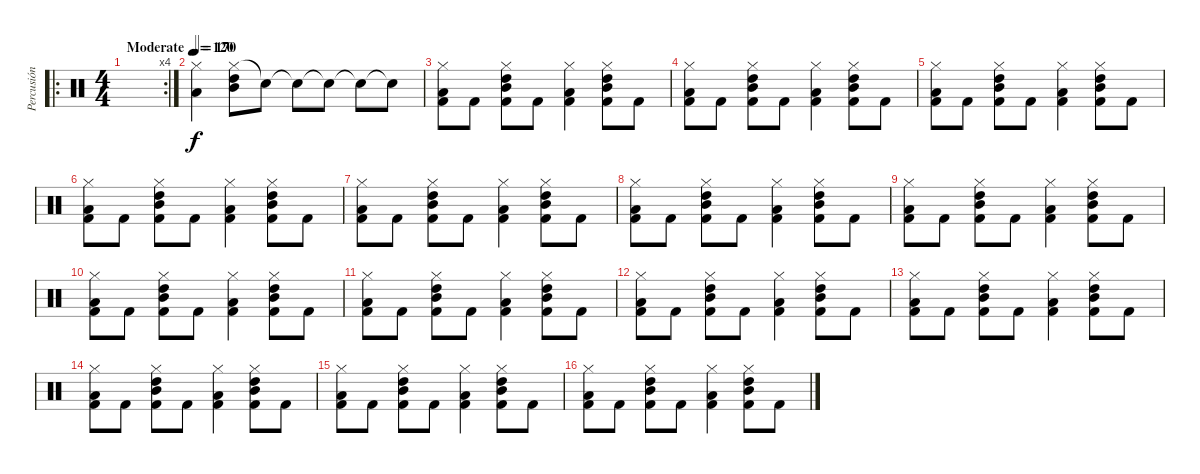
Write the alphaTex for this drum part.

\track ("Percusión" "Percusión") {instrument percussion}
\staff {score}
\articulation defaults
\ro
\rc 4
\ts (4 4)
\tempo (120 "Moderate")
\clef neutral
\ks c
|
\tempo 170
("Hi-Hat (closed)" "Low Floor Tom (hit)").4 ("Hi-Hat (closed)" "Mid Tom (hit)" "High Tom (hit)").8 "Snare (hit)"{t}.8 "Snare (hit)"{t}.8 "Snare (hit)"{t}.8 "Snare (hit)"{t}.8 "Snare (hit)"{t}.8 |
("Kick (hit) 2" "Hi-Hat (closed)" "Low Floor Tom (hit)").8 "Kick (hit) 2".8 ("Kick (hit) 2" "Hi-Hat (closed)" "Mid Tom (hit)" "High Tom (hit)").8 "Kick (hit) 2".8 ("Kick (hit) 2" "Hi-Hat (closed)" "Low Floor Tom (hit)").4 ("Kick (hit) 2" "Hi-Hat (closed)" "Mid Tom (hit)" "High Tom (hit)").8 "Kick (hit) 2".8 |
("Kick (hit) 2" "Hi-Hat (closed)" "Low Floor Tom (hit)").8 "Kick (hit) 2".8 ("Kick (hit) 2" "Hi-Hat (closed)" "Mid Tom (hit)" "High Tom (hit)").8 "Kick (hit) 2".8 ("Kick (hit) 2" "Hi-Hat (closed)" "Low Floor Tom (hit)").4 ("Kick (hit) 2" "Hi-Hat (closed)" "Mid Tom (hit)" "High Tom (hit)").8 "Kick (hit) 2".8 |
("Kick (hit) 2" "Hi-Hat (closed)" "Low Floor Tom (hit)").8 "Kick (hit) 2".8 ("Kick (hit) 2" "Hi-Hat (closed)" "Mid Tom (hit)" "High Tom (hit)").8 "Kick (hit) 2".8 ("Kick (hit) 2" "Hi-Hat (closed)" "Low Floor Tom (hit)").4 ("Kick (hit) 2" "Hi-Hat (closed)" "Mid Tom (hit)" "High Tom (hit)").8 "Kick (hit) 2".8 |
("Kick (hit) 2" "Hi-Hat (closed)" "Low Floor Tom (hit)").8 "Kick (hit) 2".8 ("Kick (hit) 2" "Hi-Hat (closed)" "Mid Tom (hit)" "High Tom (hit)").8 "Kick (hit) 2".8 ("Kick (hit) 2" "Hi-Hat (closed)" "Low Floor Tom (hit)").4 ("Kick (hit) 2" "Hi-Hat (closed)" "Mid Tom (hit)" "High Tom (hit)").8 "Kick (hit) 2".8 |
("Kick (hit) 2" "Hi-Hat (closed)" "Low Floor Tom (hit)").8 "Kick (hit) 2".8 ("Kick (hit) 2" "Hi-Hat (closed)" "Mid Tom (hit)" "High Tom (hit)").8 "Kick (hit) 2".8 ("Kick (hit) 2" "Hi-Hat (closed)" "Low Floor Tom (hit)").4 ("Kick (hit) 2" "Hi-Hat (closed)" "Mid Tom (hit)" "High Tom (hit)").8 "Kick (hit) 2".8 |
("Kick (hit) 2" "Hi-Hat (closed)" "Low Floor Tom (hit)").8 "Kick (hit) 2".8 ("Kick (hit) 2" "Hi-Hat (closed)" "Mid Tom (hit)" "High Tom (hit)").8 "Kick (hit) 2".8 ("Kick (hit) 2" "Hi-Hat (closed)" "Low Floor Tom (hit)").4 ("Kick (hit) 2" "Hi-Hat (closed)" "Mid Tom (hit)" "High Tom (hit)").8 "Kick (hit) 2".8 |
("Kick (hit) 2" "Hi-Hat (closed)" "Low Floor Tom (hit)").8 "Kick (hit) 2".8 ("Kick (hit) 2" "Hi-Hat (closed)" "Mid Tom (hit)" "High Tom (hit)").8 "Kick (hit) 2".8 ("Kick (hit) 2" "Hi-Hat (closed)" "Low Floor Tom (hit)").4 ("Kick (hit) 2" "Hi-Hat (closed)" "Mid Tom (hit)" "High Tom (hit)").8 "Kick (hit) 2".8 |
("Kick (hit) 2" "Hi-Hat (closed)" "Low Floor Tom (hit)").8 "Kick (hit) 2".8 ("Kick (hit) 2" "Hi-Hat (closed)" "Mid Tom (hit)" "High Tom (hit)").8 "Kick (hit) 2".8 ("Kick (hit) 2" "Hi-Hat (closed)" "Low Floor Tom (hit)").4 ("Kick (hit) 2" "Hi-Hat (closed)" "Mid Tom (hit)" "High Tom (hit)").8 "Kick (hit) 2".8 |
("Kick (hit) 2" "Hi-Hat (closed)" "Low Floor Tom (hit)").8 "Kick (hit) 2".8 ("Kick (hit) 2" "Hi-Hat (closed)" "Mid Tom (hit)" "High Tom (hit)").8 "Kick (hit) 2".8 ("Kick (hit) 2" "Hi-Hat (closed)" "Low Floor Tom (hit)").4 ("Kick (hit) 2" "Hi-Hat (closed)" "Mid Tom (hit)" "High Tom (hit)").8 "Kick (hit) 2".8 |
("Kick (hit) 2" "Hi-Hat (closed)" "Low Floor Tom (hit)").8 "Kick (hit) 2".8 ("Kick (hit) 2" "Hi-Hat (closed)" "Mid Tom (hit)" "High Tom (hit)").8 "Kick (hit) 2".8 ("Kick (hit) 2" "Hi-Hat (closed)" "Low Floor Tom (hit)").4 ("Kick (hit) 2" "Hi-Hat (closed)" "Mid Tom (hit)" "High Tom (hit)").8 "Kick (hit) 2".8 |
("Kick (hit) 2" "Hi-Hat (closed)" "Low Floor Tom (hit)").8 "Kick (hit) 2".8 ("Kick (hit) 2" "Hi-Hat (closed)" "Mid Tom (hit)" "High Tom (hit)").8 "Kick (hit) 2".8 ("Kick (hit) 2" "Hi-Hat (closed)" "Low Floor Tom (hit)").4 ("Kick (hit) 2" "Hi-Hat (closed)" "Mid Tom (hit)" "High Tom (hit)").8 "Kick (hit) 2".8 |
("Kick (hit) 2" "Hi-Hat (closed)" "Low Floor Tom (hit)").8 "Kick (hit) 2".8 ("Kick (hit) 2" "Hi-Hat (closed)" "Mid Tom (hit)" "High Tom (hit)").8 "Kick (hit) 2".8 ("Kick (hit) 2" "Hi-Hat (closed)" "Low Floor Tom (hit)").4 ("Kick (hit) 2" "Hi-Hat (closed)" "Mid Tom (hit)" "High Tom (hit)").8 "Kick (hit) 2".8 |
("Kick (hit) 2" "Hi-Hat (closed)" "Low Floor Tom (hit)").8 "Kick (hit) 2".8 ("Kick (hit) 2" "Hi-Hat (closed)" "Mid Tom (hit)" "High Tom (hit)").8 "Kick (hit) 2".8 ("Kick (hit) 2" "Hi-Hat (closed)" "Low Floor Tom (hit)").4 ("Kick (hit) 2" "Hi-Hat (closed)" "Mid Tom (hit)" "High Tom (hit)").8 "Kick (hit) 2".8 |
("Kick (hit) 2" "Hi-Hat (closed)" "Low Floor Tom (hit)").8 "Kick (hit) 2".8 ("Kick (hit) 2" "Hi-Hat (closed)" "Mid Tom (hit)" "High Tom (hit)").8 "Kick (hit) 2".8 ("Kick (hit) 2" "Hi-Hat (closed)" "Low Floor Tom (hit)").4 ("Kick (hit) 2" "Hi-Hat (closed)" "Mid Tom (hit)" "High Tom (hit)").8 "Kick (hit) 2".8
